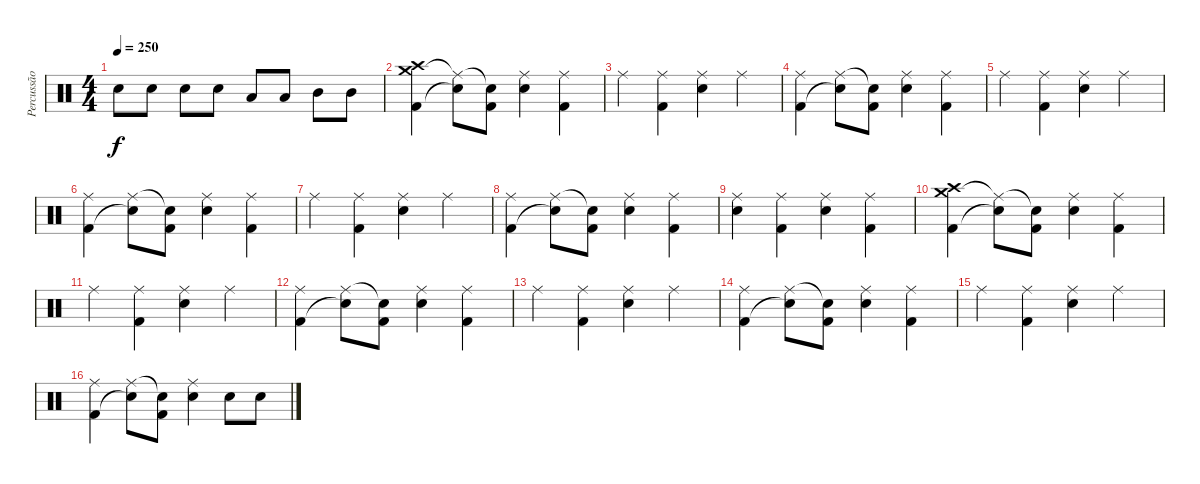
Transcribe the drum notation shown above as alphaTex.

\track ("Percussão" "Percussão") {instrument percussion}
\staff {score}
\articulation defaults
\ts (4 4)
\tempo 250
\clef neutral
\ks c "Electric Snare (hit)".8{dy f} "Electric Snare (hit)".8 "Electric Snare (hit)".8 "Electric Snare (hit)".8 "Low Tom (hit)".8 "Low Tom (hit)".8 "Mid Tom (hit)".8 "Mid Tom (hit)".8
|
("Crash medium (hit)" "Kick (hit) 2" "Crash high (hit)").4 ("Ride (middle)"{t} "Snare (hit)"{t}).8 ("Snare (hit)"{t} "Kick (hit) 2").8 ("Electric Snare (hit)" "Ride (middle)").4 ("Ride (middle)" "Kick (hit) 2").4 |
"Ride (middle)".4 ("Ride (middle)" "Kick (hit) 2").4 ("Ride (middle)" "Electric Snare (hit)").4 "Ride (middle)".4 |
("Ride (middle)" "Kick (hit) 2").4 ("Ride (middle)" "Snare (hit)"{t}).8 ("Snare (hit)"{t} "Kick (hit) 2").8 ("Electric Snare (hit)" "Ride (middle)").4 ("Ride (middle)" "Kick (hit) 2").4 |
"Ride (middle)".4 ("Ride (middle)" "Kick (hit) 2").4 ("Ride (middle)" "Electric Snare (hit)").4 "Ride (middle)".4 |
("Ride (middle)" "Kick (hit) 2").4 ("Ride (middle)" "Snare (hit)"{t}).8 ("Snare (hit)"{t} "Kick (hit) 2").8 ("Electric Snare (hit)" "Ride (middle)").4 ("Ride (middle)" "Kick (hit) 2").4 |
"Ride (middle)".4 ("Ride (middle)" "Kick (hit) 2").4 ("Ride (middle)" "Electric Snare (hit)").4 "Ride (middle)".4 |
("Ride (middle)" "Kick (hit) 2").4 ("Ride (middle)" "Snare (hit)"{t}).8 ("Snare (hit)"{t} "Kick (hit) 2").8 ("Electric Snare (hit)" "Ride (middle)").4 ("Ride (middle)" "Kick (hit) 2").4 |
("Ride (middle)" "Electric Snare (hit)").4 ("Ride (middle)" "Kick (hit) 2").4 ("Ride (middle)" "Electric Snare (hit)").4 ("Ride (middle)" "Kick (hit) 2").4 |
("Crash medium (hit)" "Kick (hit) 2" "Crash high (hit)").4 ("Ride (middle)"{t} "Snare (hit)"{t}).8 ("Snare (hit)"{t} "Kick (hit) 2").8 ("Electric Snare (hit)" "Ride (middle)").4 ("Ride (middle)" "Kick (hit) 2").4 |
"Ride (middle)".4 ("Ride (middle)" "Kick (hit) 2").4 ("Ride (middle)" "Electric Snare (hit)").4 "Ride (middle)".4 |
("Ride (middle)" "Kick (hit) 2").4 ("Ride (middle)" "Snare (hit)"{t}).8 ("Snare (hit)"{t} "Kick (hit) 2").8 ("Electric Snare (hit)" "Ride (middle)").4 ("Ride (middle)" "Kick (hit) 2").4 |
"Ride (middle)".4 ("Ride (middle)" "Kick (hit) 2").4 ("Ride (middle)" "Electric Snare (hit)").4 "Ride (middle)".4 |
("Ride (middle)" "Kick (hit) 2").4 ("Ride (middle)" "Snare (hit)"{t}).8 ("Snare (hit)"{t} "Kick (hit) 2").8 ("Electric Snare (hit)" "Ride (middle)").4 ("Ride (middle)" "Kick (hit) 2").4 |
"Ride (middle)".4 ("Ride (middle)" "Kick (hit) 2").4 ("Ride (middle)" "Electric Snare (hit)").4 "Ride (middle)".4 |
("Ride (middle)" "Kick (hit) 2").4 ("Ride (middle)" "Snare (hit)"{t}).8 ("Snare (hit)"{t} "Kick (hit) 2").8 ("Electric Snare (hit)" "Ride (middle)").4 "Electric Snare (hit)".8 "Electric Snare (hit)".8
